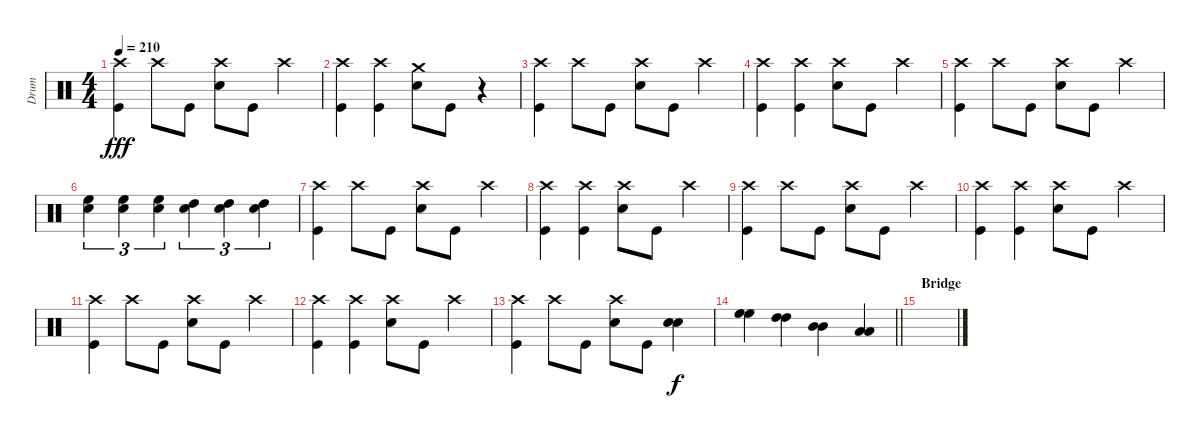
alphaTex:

\track ("Drum" "Drum") {instrument percussion}
\staff
\articulation defaults
\ts (4 4)
\tempo 210
\clef neutral
\ks c
("Crash high (hit)" "Kick (hit)").4{dy fff} "Crash high (hit)".8 "Kick (hit)".8 ("Crash high (hit)" "Snare (hit) 2").8 "Kick (hit)".8 "Crash high (hit)".4 |
("Crash high (hit)" "Kick (hit)").4 ("Crash high (hit)" "Kick (hit)").4 ("Crash medium (hit)" "Snare (hit) 2").8 "Kick (hit)".8 r.4 |
("Crash high (hit)" "Kick (hit)").4 "Crash high (hit)".8 "Kick (hit)".8 ("Crash high (hit)" "Snare (hit) 2").8 "Kick (hit)".8 "Crash high (hit)".4 |
("Crash high (hit)" "Kick (hit)").4 ("Crash high (hit)" "Kick (hit)").4 ("Crash high (hit)" "Snare (hit) 2").8 "Kick (hit)".8 "Crash high (hit)".4 |
("Crash high (hit)" "Kick (hit)").4 "Crash high (hit)".8 "Kick (hit)".8 ("Crash high (hit)" "Snare (hit) 2").8 "Kick (hit)".8 "Crash high (hit)".4 |
("High Floor Tom (hit)" "Snare (hit) 2").4{tu (3 2)} ("High Floor Tom (hit)" "Snare (hit) 2").4{tu (3 2)} ("High Floor Tom (hit)" "Snare (hit) 2").4{tu (3 2)} ("High Tom (hit)" "Snare (hit) 2").4{tu (3 2)} ("High Tom (hit)" "Snare (hit) 2").4{tu (3 2)} ("High Tom (hit)" "Snare (hit) 2").4{tu (3 2)} |
("Crash high (hit)" "Kick (hit)").4 "Crash high (hit)".8 "Kick (hit)".8 ("Crash high (hit)" "Snare (hit) 2").8 "Kick (hit)".8 "Crash high (hit)".4 |
("Crash high (hit)" "Kick (hit)").4 ("Crash high (hit)" "Kick (hit)").4 ("Crash high (hit)" "Snare (hit) 2").8 "Kick (hit)".8 "Crash high (hit)".4 |
("Crash high (hit)" "Kick (hit)").4 "Crash high (hit)".8 "Kick (hit)".8 ("Crash high (hit)" "Snare (hit) 2").8 "Kick (hit)".8 "Crash high (hit)".4 |
("Crash high (hit)" "Kick (hit)").4 ("Crash high (hit)" "Kick (hit)").4 ("Crash high (hit)" "Snare (hit) 2").8 "Kick (hit)".8 "Crash high (hit)".4 |
("Crash high (hit)" "Kick (hit)").4 "Crash high (hit)".8 "Kick (hit)".8 ("Crash high (hit)" "Snare (hit) 2").8 "Kick (hit)".8 "Crash high (hit)".4 |
("Crash high (hit)" "Kick (hit)").4 ("Crash high (hit)" "Kick (hit)").4 ("Crash high (hit)" "Snare (hit) 2").8 "Kick (hit)".8 "Crash high (hit)".4 |
("Crash high (hit)" "Kick (hit)").4 "Crash high (hit)".8 "Kick (hit)".8 ("Crash high (hit)" "Snare (hit) 2").8 "Kick (hit)".8 ("Snare (hit) 2" "Snare (hit) 2").4{dy f} |
\barLineRight lightlight
("High Floor Tom (hit)" "High Floor Tom (hit)").4 ("High Tom (hit)" "High Tom (hit)").4 ("Mid Tom (hit)" "Mid Tom (hit)").4 ("Low Tom (hit)" "Low Tom (hit)").4 |
\section ("" "Bridge")
